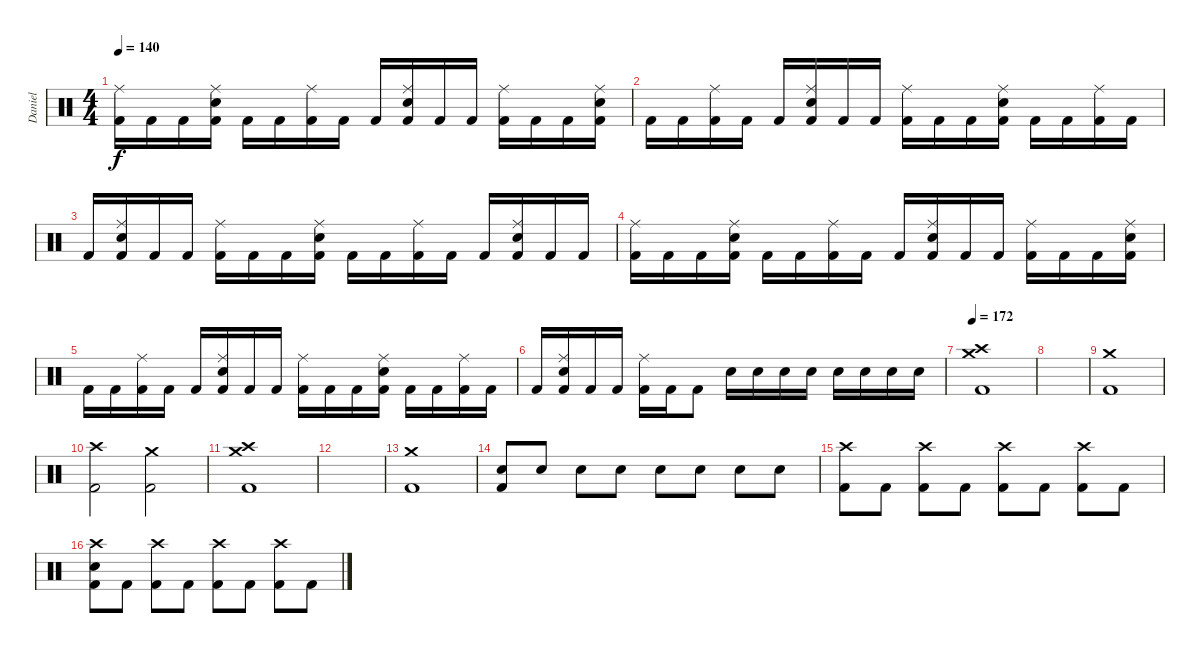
\track ("Daniel" "Daniel") {instrument percussion}
\staff {score}
\articulation defaults
\ts (4 4)
\tempo 140
\clef neutral
\ks c
("Kick (hit) 2" "Ride (middle)").16{dy f} "Kick (hit) 2".16 "Kick (hit) 2".16 ("Kick (hit) 2" "Electric Snare (hit)" "Ride (middle)").16 "Kick (hit) 2".16 "Kick (hit) 2".16 ("Kick (hit) 2" "Ride (middle)").16 "Kick (hit) 2".16 "Kick (hit) 2".16 ("Kick (hit) 2" "Electric Snare (hit)" "Ride (middle)").16 "Kick (hit) 2".16 "Kick (hit) 2".16 ("Kick (hit) 2" "Ride (middle)").16 "Kick (hit) 2".16 "Kick (hit) 2".16 ("Kick (hit) 2" "Electric Snare (hit)" "Ride (middle)").16 |
"Kick (hit) 2".16 "Kick (hit) 2".16 ("Kick (hit) 2" "Ride (middle)").16 "Kick (hit) 2".16 "Kick (hit) 2".16 ("Kick (hit) 2" "Electric Snare (hit)" "Ride (middle)").16 "Kick (hit) 2".16 "Kick (hit) 2".16 ("Kick (hit) 2" "Ride (middle)").16 "Kick (hit) 2".16 "Kick (hit) 2".16 ("Kick (hit) 2" "Electric Snare (hit)" "Ride (middle)").16 "Kick (hit) 2".16 "Kick (hit) 2".16 ("Kick (hit) 2" "Ride (middle)").16 "Kick (hit) 2".16 |
"Kick (hit) 2".16 ("Kick (hit) 2" "Electric Snare (hit)" "Ride (middle)").16 "Kick (hit) 2".16 "Kick (hit) 2".16 ("Kick (hit) 2" "Ride (middle)").16 "Kick (hit) 2".16 "Kick (hit) 2".16 ("Kick (hit) 2" "Electric Snare (hit)" "Ride (middle)").16 "Kick (hit) 2".16 "Kick (hit) 2".16 ("Kick (hit) 2" "Ride (middle)").16 "Kick (hit) 2".16 "Kick (hit) 2".16 ("Kick (hit) 2" "Electric Snare (hit)" "Ride (middle)").16 "Kick (hit) 2".16 "Kick (hit) 2".16 |
("Kick (hit) 2" "Ride (middle)").16 "Kick (hit) 2".16 "Kick (hit) 2".16 ("Kick (hit) 2" "Electric Snare (hit)" "Ride (middle)").16 "Kick (hit) 2".16 "Kick (hit) 2".16 ("Kick (hit) 2" "Ride (middle)").16 "Kick (hit) 2".16 "Kick (hit) 2".16 ("Kick (hit) 2" "Electric Snare (hit)" "Ride (middle)").16 "Kick (hit) 2".16 "Kick (hit) 2".16 ("Kick (hit) 2" "Ride (middle)").16 "Kick (hit) 2".16 "Kick (hit) 2".16 ("Kick (hit) 2" "Electric Snare (hit)" "Ride (middle)").16 |
"Kick (hit) 2".16 "Kick (hit) 2".16 ("Kick (hit) 2" "Ride (middle)").16 "Kick (hit) 2".16 "Kick (hit) 2".16 ("Kick (hit) 2" "Electric Snare (hit)" "Ride (middle)").16 "Kick (hit) 2".16 "Kick (hit) 2".16 ("Kick (hit) 2" "Ride (middle)").16 "Kick (hit) 2".16 "Kick (hit) 2".16 ("Kick (hit) 2" "Electric Snare (hit)" "Ride (middle)").16 "Kick (hit) 2".16 "Kick (hit) 2".16 ("Kick (hit) 2" "Ride (middle)").16 "Kick (hit) 2".16 |
"Kick (hit) 2".16 ("Kick (hit) 2" "Electric Snare (hit)" "Ride (middle)").16 "Kick (hit) 2".16 "Kick (hit) 2".16 ("Kick (hit) 2" "Ride (middle)").16 "Kick (hit) 2".16 "Kick (hit) 2".8 "Electric Snare (hit)".16 "Electric Snare (hit)".16 "Electric Snare (hit)".16 "Electric Snare (hit)".16 "Electric Snare (hit)".16 "Electric Snare (hit)".16 "Electric Snare (hit)".16 "Electric Snare (hit)".16 |
\tempo 172
("Kick (hit) 2" "Crash high (hit)" "Crash medium (hit)").1 |
|
("Kick (hit) 2" "Crash medium (hit)").1 |
("Kick (hit) 2" "Crash high (hit)").2 ("Kick (hit) 2" "Crash medium (hit)").2 |
("Kick (hit) 2" "Crash medium (hit)" "Crash high (hit)").1 |
|
("Kick (hit) 2" "Crash medium (hit)").1 |
("Electric Snare (hit)" "Kick (hit) 2").8 "Electric Snare (hit)".8 "Electric Snare (hit)".8 "Electric Snare (hit)".8 "Electric Snare (hit)".8 "Electric Snare (hit)".8 "Electric Snare (hit)".8 "Electric Snare (hit)".8 |
("Crash high (hit)" "Kick (hit) 2").8 "Kick (hit) 2".8 ("Crash high (hit)" "Kick (hit) 2").8 "Kick (hit) 2".8 ("Crash high (hit)" "Kick (hit) 2").8 "Kick (hit) 2".8 ("Crash high (hit)" "Kick (hit) 2").8 "Kick (hit) 2".8 |
("Crash high (hit)" "Electric Snare (hit)" "Kick (hit) 2").8 "Kick (hit) 2".8 ("Crash high (hit)" "Kick (hit) 2").8 "Kick (hit) 2".8 ("Crash high (hit)" "Kick (hit) 2").8 "Kick (hit) 2".8 ("Crash high (hit)" "Kick (hit) 2").8 "Kick (hit) 2".8
